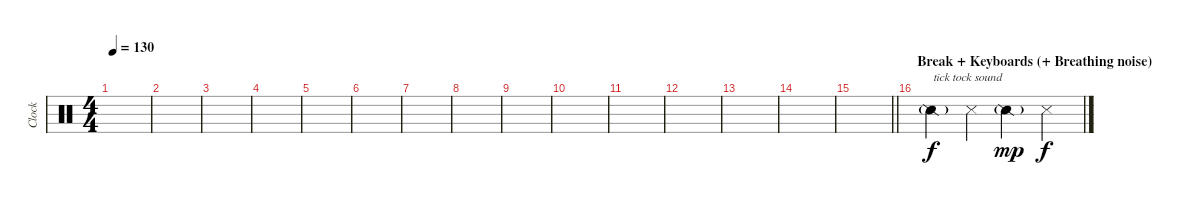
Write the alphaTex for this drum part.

\track ("Clock" "Clock") {instrument percussion}
\staff {score}
\articulation defaults
\ts (4 4)
\tempo 130
\clef neutral
\ks c
|
|
|
|
|
|
|
|
|
|
|
|
|
|
\barLineRight lightlight
|
\section ("" "Break + Keyboards (+ Breathing noise)")
"Snare (side stick) 2"{g}.4{txt "tick tock sound"} "Metronome (hit)".4{dy f} "Snare (side stick) 2"{g}.4{dy mp} "Metronome (hit)".4{dy f}
